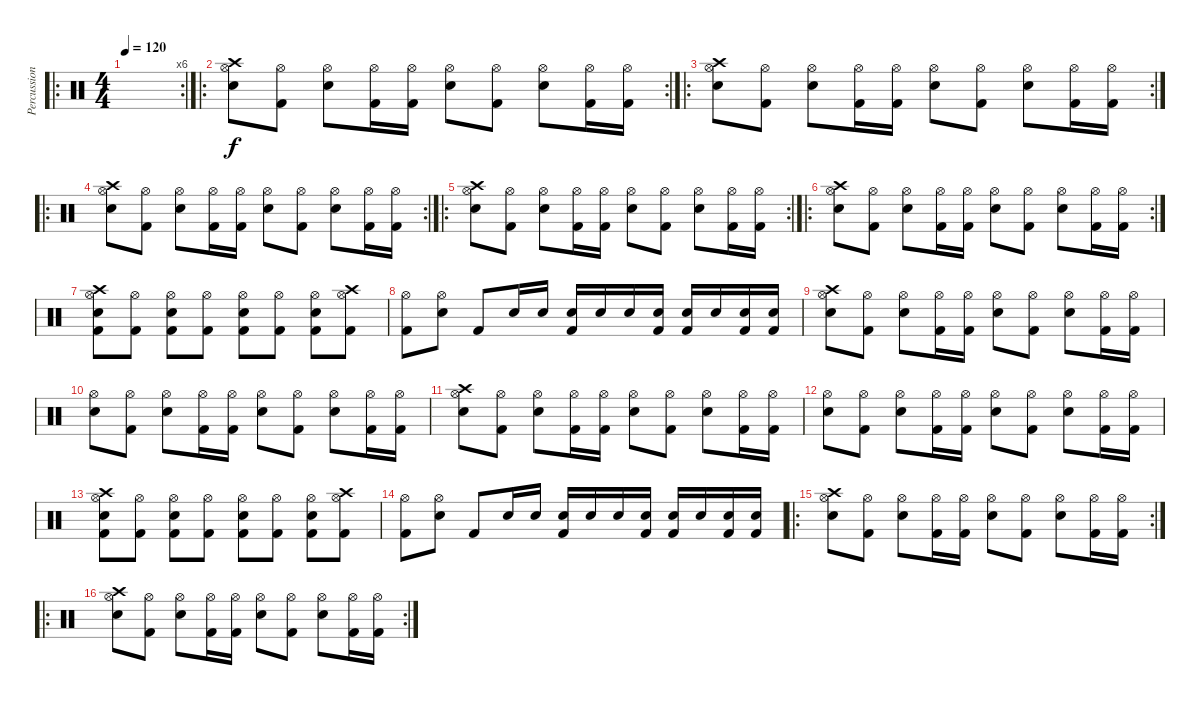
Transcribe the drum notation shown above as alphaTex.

\track ("Percussion" "Percussion") {instrument percussion}
\staff {score}
\articulation defaults
\ro
\rc 6
\ts (4 4)
\tempo 120
\tempo 114
\tempo 120
\clef neutral
\ks c
|
\ro
\rc 2
("Crash high (hit)" "Hi-Hat (open)" "Electric Snare (hit)").8 ("Hi-Hat (open)" "Kick (hit) 2").8 ("Hi-Hat (open)" "Electric Snare (hit)").8 ("Hi-Hat (open)" "Kick (hit) 2").16 ("Hi-Hat (open)" "Kick (hit) 2").16 ("Hi-Hat (open)" "Electric Snare (hit)").8 ("Hi-Hat (open)" "Kick (hit) 2").8 ("Hi-Hat (open)" "Electric Snare (hit)").8 ("Hi-Hat (open)" "Kick (hit) 2").16 ("Hi-Hat (open)" "Kick (hit) 2").16 |
\ro
\rc 2
("Crash high (hit)" "Hi-Hat (open)" "Electric Snare (hit)").8 ("Hi-Hat (open)" "Kick (hit) 2").8 ("Hi-Hat (open)" "Electric Snare (hit)").8 ("Hi-Hat (open)" "Kick (hit) 2").16 ("Hi-Hat (open)" "Kick (hit) 2").16 ("Hi-Hat (open)" "Electric Snare (hit)").8 ("Hi-Hat (open)" "Kick (hit) 2").8 ("Hi-Hat (open)" "Electric Snare (hit)").8 ("Hi-Hat (open)" "Kick (hit) 2").16 ("Hi-Hat (open)" "Kick (hit) 2").16 |
\ro
\rc 2
("Crash high (hit)" "Hi-Hat (open)" "Electric Snare (hit)").8 ("Hi-Hat (open)" "Kick (hit) 2").8 ("Hi-Hat (open)" "Electric Snare (hit)").8 ("Hi-Hat (open)" "Kick (hit) 2").16 ("Hi-Hat (open)" "Kick (hit) 2").16 ("Hi-Hat (open)" "Electric Snare (hit)").8 ("Hi-Hat (open)" "Kick (hit) 2").8 ("Hi-Hat (open)" "Electric Snare (hit)").8 ("Hi-Hat (open)" "Kick (hit) 2").16 ("Hi-Hat (open)" "Kick (hit) 2").16 |
\ro
\rc 2
("Crash high (hit)" "Hi-Hat (open)" "Electric Snare (hit)").8 ("Hi-Hat (open)" "Kick (hit) 2").8 ("Hi-Hat (open)" "Electric Snare (hit)").8 ("Hi-Hat (open)" "Kick (hit) 2").16 ("Hi-Hat (open)" "Kick (hit) 2").16 ("Hi-Hat (open)" "Electric Snare (hit)").8 ("Hi-Hat (open)" "Kick (hit) 2").8 ("Hi-Hat (open)" "Electric Snare (hit)").8 ("Hi-Hat (open)" "Kick (hit) 2").16 ("Hi-Hat (open)" "Kick (hit) 2").16 |
\ro
\rc 2
("Crash high (hit)" "Hi-Hat (open)" "Electric Snare (hit)").8 ("Hi-Hat (open)" "Kick (hit) 2").8 ("Hi-Hat (open)" "Electric Snare (hit)").8 ("Hi-Hat (open)" "Kick (hit) 2").16 ("Hi-Hat (open)" "Kick (hit) 2").16 ("Hi-Hat (open)" "Electric Snare (hit)").8 ("Hi-Hat (open)" "Kick (hit) 2").8 ("Hi-Hat (open)" "Electric Snare (hit)").8 ("Hi-Hat (open)" "Kick (hit) 2").16 ("Hi-Hat (open)" "Kick (hit) 2").16 |
("Crash high (hit)" "Hi-Hat (open)" "Electric Snare (hit)" "Kick (hit) 2").8 ("Hi-Hat (open)" "Kick (hit) 2").8 ("Hi-Hat (open)" "Electric Snare (hit)" "Kick (hit) 2").8 ("Hi-Hat (open)" "Kick (hit) 2").8 ("Hi-Hat (open)" "Electric Snare (hit)" "Kick (hit) 2").8 ("Hi-Hat (open)" "Kick (hit) 2").8 ("Hi-Hat (open)" "Electric Snare (hit)" "Kick (hit) 2").8 ("Crash high (hit)" "Hi-Hat (open)" "Kick (hit) 2").8 |
("Hi-Hat (open)" "Kick (hit) 2").8 ("Hi-Hat (open)" "Electric Snare (hit)").8 "Kick (hit) 2".8 "Electric Snare (hit)".16 "Electric Snare (hit)".16 ("Electric Snare (hit)" "Kick (hit) 2").16 "Electric Snare (hit)".16 "Electric Snare (hit)".16 ("Electric Snare (hit)" "Kick (hit) 2").16 ("Electric Snare (hit)" "Kick (hit) 2").16 "Electric Snare (hit)".16 ("Electric Snare (hit)" "Kick (hit) 2").16 ("Electric Snare (hit)" "Kick (hit) 2").16 |
("Crash high (hit)" "Hi-Hat (open)" "Electric Snare (hit)").8 ("Hi-Hat (open)" "Kick (hit) 2").8 ("Hi-Hat (open)" "Electric Snare (hit)").8 ("Hi-Hat (open)" "Kick (hit) 2").16 ("Hi-Hat (open)" "Kick (hit) 2").16 ("Hi-Hat (open)" "Electric Snare (hit)").8 ("Hi-Hat (open)" "Kick (hit) 2").8 ("Hi-Hat (open)" "Electric Snare (hit)").8 ("Hi-Hat (open)" "Kick (hit) 2").16 ("Hi-Hat (open)" "Kick (hit) 2").16 |
("Hi-Hat (open)" "Electric Snare (hit)").8 ("Hi-Hat (open)" "Kick (hit) 2").8 ("Hi-Hat (open)" "Electric Snare (hit)").8 ("Hi-Hat (open)" "Kick (hit) 2").16 ("Hi-Hat (open)" "Kick (hit) 2").16 ("Hi-Hat (open)" "Electric Snare (hit)").8 ("Hi-Hat (open)" "Kick (hit) 2").8 ("Hi-Hat (open)" "Electric Snare (hit)").8 ("Hi-Hat (open)" "Kick (hit) 2").16 ("Hi-Hat (open)" "Kick (hit) 2").16 |
("Crash high (hit)" "Hi-Hat (open)" "Electric Snare (hit)").8 ("Hi-Hat (open)" "Kick (hit) 2").8 ("Hi-Hat (open)" "Electric Snare (hit)").8 ("Hi-Hat (open)" "Kick (hit) 2").16 ("Hi-Hat (open)" "Kick (hit) 2").16 ("Hi-Hat (open)" "Electric Snare (hit)").8 ("Hi-Hat (open)" "Kick (hit) 2").8 ("Hi-Hat (open)" "Electric Snare (hit)").8 ("Hi-Hat (open)" "Kick (hit) 2").16 ("Hi-Hat (open)" "Kick (hit) 2").16 |
("Hi-Hat (open)" "Electric Snare (hit)").8 ("Hi-Hat (open)" "Kick (hit) 2").8 ("Hi-Hat (open)" "Electric Snare (hit)").8 ("Hi-Hat (open)" "Kick (hit) 2").16 ("Hi-Hat (open)" "Kick (hit) 2").16 ("Hi-Hat (open)" "Electric Snare (hit)").8 ("Hi-Hat (open)" "Kick (hit) 2").8 ("Hi-Hat (open)" "Electric Snare (hit)").8 ("Hi-Hat (open)" "Kick (hit) 2").16 ("Hi-Hat (open)" "Kick (hit) 2").16 |
("Crash high (hit)" "Hi-Hat (open)" "Electric Snare (hit)" "Kick (hit) 2").8 ("Hi-Hat (open)" "Kick (hit) 2").8 ("Hi-Hat (open)" "Electric Snare (hit)" "Kick (hit) 2").8 ("Hi-Hat (open)" "Kick (hit) 2").8 ("Hi-Hat (open)" "Electric Snare (hit)" "Kick (hit) 2").8 ("Hi-Hat (open)" "Kick (hit) 2").8 ("Hi-Hat (open)" "Electric Snare (hit)" "Kick (hit) 2").8 ("Crash high (hit)" "Hi-Hat (open)" "Kick (hit) 2").8 |
("Hi-Hat (open)" "Kick (hit) 2").8 ("Hi-Hat (open)" "Electric Snare (hit)").8 "Kick (hit) 2".8 "Electric Snare (hit)".16 "Electric Snare (hit)".16 ("Electric Snare (hit)" "Kick (hit) 2").16 "Electric Snare (hit)".16 "Electric Snare (hit)".16 ("Electric Snare (hit)" "Kick (hit) 2").16 ("Electric Snare (hit)" "Kick (hit) 2").16 "Electric Snare (hit)".16 ("Electric Snare (hit)" "Kick (hit) 2").16 ("Electric Snare (hit)" "Kick (hit) 2").16 |
\ro
\rc 2
("Crash high (hit)" "Hi-Hat (open)" "Electric Snare (hit)").8 ("Hi-Hat (open)" "Kick (hit) 2").8 ("Hi-Hat (open)" "Electric Snare (hit)").8 ("Hi-Hat (open)" "Kick (hit) 2").16 ("Hi-Hat (open)" "Kick (hit) 2").16 ("Hi-Hat (open)" "Electric Snare (hit)").8 ("Hi-Hat (open)" "Kick (hit) 2").8 ("Hi-Hat (open)" "Electric Snare (hit)").8 ("Hi-Hat (open)" "Kick (hit) 2").16 ("Hi-Hat (open)" "Kick (hit) 2").16 |
\ro
\rc 2
("Crash high (hit)" "Hi-Hat (open)" "Electric Snare (hit)").8 ("Hi-Hat (open)" "Kick (hit) 2").8 ("Hi-Hat (open)" "Electric Snare (hit)").8 ("Hi-Hat (open)" "Kick (hit) 2").16 ("Hi-Hat (open)" "Kick (hit) 2").16 ("Hi-Hat (open)" "Electric Snare (hit)").8 ("Hi-Hat (open)" "Kick (hit) 2").8 ("Hi-Hat (open)" "Electric Snare (hit)").8 ("Hi-Hat (open)" "Kick (hit) 2").16 ("Hi-Hat (open)" "Kick (hit) 2").16
